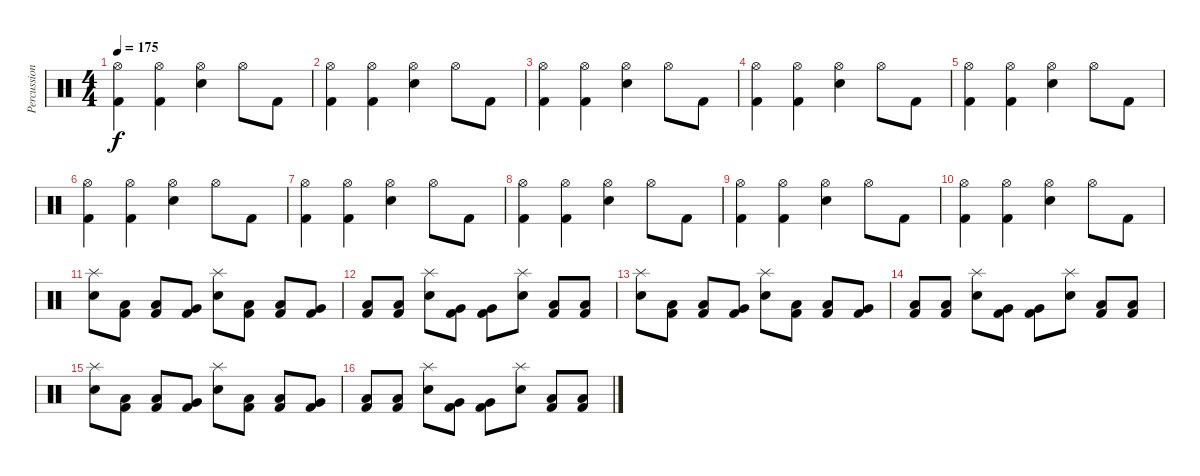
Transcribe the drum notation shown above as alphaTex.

\track ("Percussions" "Percussion") {instrument percussion}
\staff {score}
\articulation defaults
\ts (4 4)
\tempo 175
\clef neutral
\ks c
("Hi-Hat (open)" "Kick (hit) 2").4{dy f} ("Hi-Hat (open)" "Kick (hit) 2").4 ("Hi-Hat (open)" "Electric Snare (hit)").4 "Hi-Hat (open)".8 "Kick (hit) 2".8 |
("Hi-Hat (open)" "Kick (hit) 2").4 ("Hi-Hat (open)" "Kick (hit) 2").4 ("Hi-Hat (open)" "Electric Snare (hit)").4 "Hi-Hat (open)".8 "Kick (hit) 2".8 |
("Hi-Hat (open)" "Kick (hit) 2").4 ("Hi-Hat (open)" "Kick (hit) 2").4 ("Hi-Hat (open)" "Electric Snare (hit)").4 "Hi-Hat (open)".8 "Kick (hit) 2".8 |
("Hi-Hat (open)" "Kick (hit) 2").4 ("Hi-Hat (open)" "Kick (hit) 2").4 ("Hi-Hat (open)" "Electric Snare (hit)").4 "Hi-Hat (open)".8 "Kick (hit) 2".8 |
("Hi-Hat (open)" "Kick (hit) 2").4 ("Hi-Hat (open)" "Kick (hit) 2").4 ("Hi-Hat (open)" "Electric Snare (hit)").4 "Hi-Hat (open)".8 "Kick (hit) 2".8 |
("Hi-Hat (open)" "Kick (hit) 2").4 ("Hi-Hat (open)" "Kick (hit) 2").4 ("Hi-Hat (open)" "Electric Snare (hit)").4 "Hi-Hat (open)".8 "Kick (hit) 2".8 |
("Hi-Hat (open)" "Kick (hit) 2").4 ("Hi-Hat (open)" "Kick (hit) 2").4 ("Hi-Hat (open)" "Electric Snare (hit)").4 "Hi-Hat (open)".8 "Kick (hit) 2".8 |
("Hi-Hat (open)" "Kick (hit) 2").4 ("Hi-Hat (open)" "Kick (hit) 2").4 ("Hi-Hat (open)" "Electric Snare (hit)").4 "Hi-Hat (open)".8 "Kick (hit) 2".8 |
("Hi-Hat (open)" "Kick (hit) 2").4 ("Hi-Hat (open)" "Kick (hit) 2").4 ("Hi-Hat (open)" "Electric Snare (hit)").4 "Hi-Hat (open)".8 "Kick (hit) 2".8 |
("Hi-Hat (open)" "Kick (hit) 2").4 ("Hi-Hat (open)" "Kick (hit) 2").4 ("Hi-Hat (open)" "Electric Snare (hit)").4 "Hi-Hat (open)".8 "Kick (hit) 2".8 |
("Splash (hit)" "Electric Snare (hit)").8 ("Low Tom (hit)" "Kick (hit) 2").8 ("Low Tom (hit)" "Kick (hit) 2").8 ("Very Low Tom (hit)" "Kick (hit) 2").8 ("Splash (hit)" "Electric Snare (hit)").8 ("Low Tom (hit)" "Kick (hit) 2").8 ("Low Tom (hit)" "Kick (hit) 2").8 ("Very Low Tom (hit)" "Kick (hit) 2").8 |
("Low Tom (hit)" "Kick (hit) 2").8 ("Low Tom (hit)" "Kick (hit) 2").8 ("Splash (hit)" "Electric Snare (hit)").8 ("Very Low Tom (hit)" "Kick (hit) 2").8 ("Very Low Tom (hit)" "Kick (hit) 2").8 ("Splash (hit)" "Electric Snare (hit)").8 ("Low Floor Tom (hit)" "Kick (hit) 2").8 ("Low Floor Tom (hit)" "Kick (hit) 2").8 |
("Splash (hit)" "Electric Snare (hit)").8 ("Low Tom (hit)" "Kick (hit) 2").8 ("Low Tom (hit)" "Kick (hit) 2").8 ("Very Low Tom (hit)" "Kick (hit) 2").8 ("Splash (hit)" "Electric Snare (hit)").8 ("Low Tom (hit)" "Kick (hit) 2").8 ("Low Tom (hit)" "Kick (hit) 2").8 ("Very Low Tom (hit)" "Kick (hit) 2").8 |
("Low Tom (hit)" "Kick (hit) 2").8 ("Low Tom (hit)" "Kick (hit) 2").8 ("Splash (hit)" "Electric Snare (hit)").8 ("Very Low Tom (hit)" "Kick (hit) 2").8 ("Very Low Tom (hit)" "Kick (hit) 2").8 ("Splash (hit)" "Electric Snare (hit)").8 ("Low Floor Tom (hit)" "Kick (hit) 2").8 ("Low Floor Tom (hit)" "Kick (hit) 2").8 |
("Splash (hit)" "Electric Snare (hit)").8 ("Low Tom (hit)" "Kick (hit) 2").8 ("Low Tom (hit)" "Kick (hit) 2").8 ("Very Low Tom (hit)" "Kick (hit) 2").8 ("Splash (hit)" "Electric Snare (hit)").8 ("Low Tom (hit)" "Kick (hit) 2").8 ("Low Tom (hit)" "Kick (hit) 2").8 ("Very Low Tom (hit)" "Kick (hit) 2").8 |
("Low Tom (hit)" "Kick (hit) 2").8 ("Low Tom (hit)" "Kick (hit) 2").8 ("Splash (hit)" "Electric Snare (hit)").8 ("Very Low Tom (hit)" "Kick (hit) 2").8 ("Very Low Tom (hit)" "Kick (hit) 2").8 ("Splash (hit)" "Electric Snare (hit)").8 ("Low Floor Tom (hit)" "Kick (hit) 2").8 ("Low Floor Tom (hit)" "Kick (hit) 2").8
